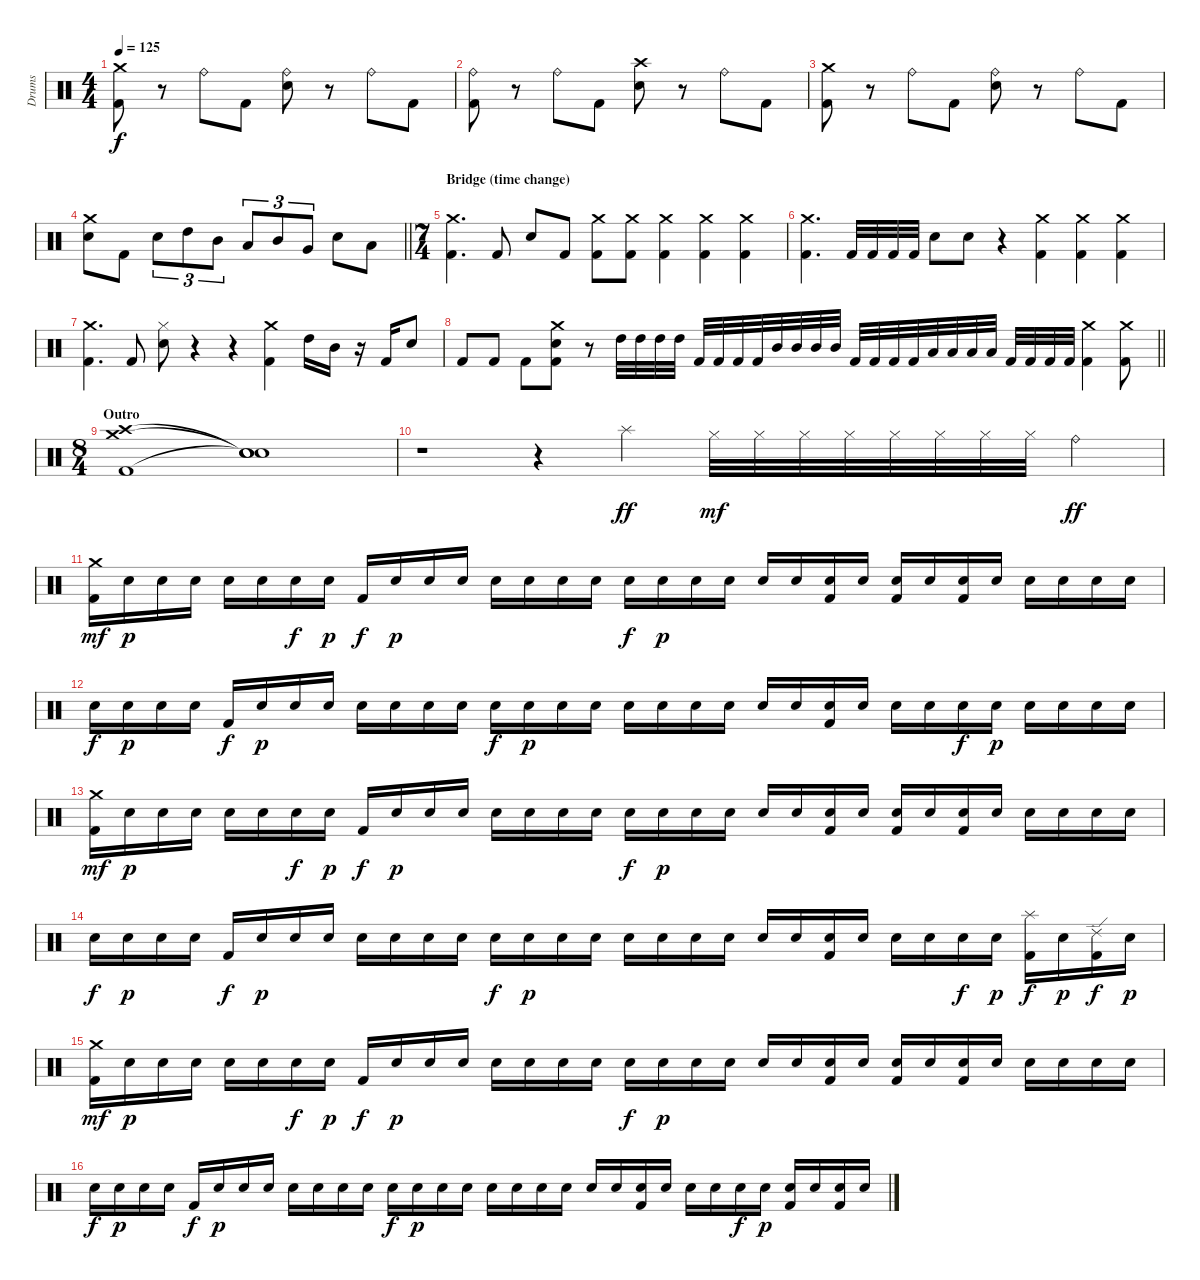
\track ("Drums " "Drums ") {instrument percussion}
\staff {score}
\articulation defaults
\ts (4 4)
\tempo 125
\clef neutral
\ks c
("Crash medium (hit)" "Kick (hit) 2").8{dy f} r.8 "Ride (bell)".8 "Kick (hit) 2".8 ("Ride (bell)" "Electric Snare (hit)").8 r.8 "Ride (bell)".8 "Kick (hit) 2".8 |
("Ride (bell)" "Kick (hit) 2").8 r.8 "Ride (bell)".8 "Kick (hit) 2".8 ("Crash high (hit)" "Electric Snare (hit)").8 r.8 "Ride (bell)".8 "Kick (hit) 2".8 |
("Crash medium (hit)" "Kick (hit) 2").8 r.8 "Ride (bell)".8 "Kick (hit) 2".8 ("Ride (bell)" "Electric Snare (hit)").8 r.8 "Ride (bell)".8 "Kick (hit) 2".8 |
\barLineRight lightlight
("Crash medium (hit)" "Electric Snare (hit)").8 "Kick (hit) 2".8 "Electric Snare (hit)".8{tu (3 2)} "High Tom (hit)".8{tu (3 2)} "Mid Tom (hit)".8{tu (3 2)} "Low Tom (hit)".8{tu (3 2)} "Mid Tom (hit)".8{tu (3 2)} "Very Low Tom (hit)".8{tu (3 2)} "Electric Snare (hit)".8 "Low Tom (hit)".8 |
\ts (7 4)
\section ("" "Bridge (time change) ")
("Crash medium (hit)" "Kick (hit) 2").4{d} "Kick (hit) 2".8 "Electric Snare (hit)".8 "Kick (hit) 2".8 ("Crash medium (hit)" "Kick (hit) 2").8 ("Crash medium (hit)" "Kick (hit) 2").8 ("Crash medium (hit)" "Kick (hit) 2").4 ("Crash medium (hit)" "Kick (hit) 2").4 ("Crash medium (hit)" "Kick (hit) 2").4 |
("Crash medium (hit)" "Kick (hit) 2").4{d} "Kick (hit) 2".32 "Kick (hit) 2".32 "Kick (hit) 2".32 "Kick (hit) 2".32 "Electric Snare (hit)".8 "Electric Snare (hit)".8 r.4 ("Crash medium (hit)" "Kick (hit) 2").4 ("Crash medium (hit)" "Kick (hit) 2").4 ("Crash medium (hit)" "Kick (hit) 2").4 |
("Crash medium (hit)" "Kick (hit) 2").4{d} "Kick (hit) 2".8 ("Hi-Hat (closed)" "Electric Snare (hit)").8 r.4 r.4 ("Crash medium (hit)" "Kick (hit) 2").4 "High Tom (hit)".16 "Mid Tom (hit)".16 r.16 "Kick (hit) 2".16 "Electric Snare (hit)".8 |
\barLineRight lightlight "Kick (hit) 2".8 "Kick (hit) 2".8 "Kick (hit) 2".8
("Crash medium (hit)" "Electric Snare (hit)" "Kick (hit) 2").8 r.8 "High Tom (hit)".32 "High Tom (hit)".32 "High Tom (hit)".32 "High Tom (hit)".32 "Kick (hit) 2".32 "Kick (hit) 2".32 "Kick (hit) 2".32 "Kick (hit) 2".32 "Mid Tom (hit)".32 "Mid Tom (hit)".32 "Mid Tom (hit)".32 "Mid Tom (hit)".32 "Kick (hit) 2".32 "Kick (hit) 2".32 "Kick (hit) 2".32 "Kick (hit) 2".32 "Low Tom (hit)".32 "Low Tom (hit)".32 "Low Tom (hit)".32 "Low Tom (hit)".32 "Kick (hit) 2".32 "Kick (hit) 2".32 "Kick (hit) 2".32 "Kick (hit) 2".32 ("Crash medium (hit)" "Kick (hit) 2").4 ("Crash medium (hit)" "Kick (hit) 2").8 |
\ts (8 4)
\section ("" "Outro")
("Crash medium (hit)" "Crash high (hit)" "Kick (hit) 2").1 ("Snare (hit)"{t} "Snare (hit)"{t} "Snare (hit)"{t}).1 |
r.1 r.4 "Splash (hit)".4{dy ff} "Hi-Hat (closed)".32{dy mf} "Hi-Hat (closed)".32 "Hi-Hat (closed)".32 "Hi-Hat (closed)".32 "Hi-Hat (closed)".32 "Hi-Hat (closed)".32 "Hi-Hat (closed)".32 "Hi-Hat (closed)".32 "Ride (bell)".4{dy ff} |
("Crash medium (hit)" "Kick (hit) 2").16{dy mf} "Electric Snare (hit)".16{dy p} "Electric Snare (hit)".16 "Electric Snare (hit)".16 "Electric Snare (hit)".16 "Electric Snare (hit)".16 "Electric Snare (hit)".16{dy f} "Electric Snare (hit)".16{dy p} "Kick (hit) 2".16{dy f} "Electric Snare (hit)".16{dy p} "Electric Snare (hit)".16 "Electric Snare (hit)".16 "Electric Snare (hit)".16 "Electric Snare (hit)".16 "Electric Snare (hit)".16 "Electric Snare (hit)".16 "Electric Snare (hit)".16{dy f} "Electric Snare (hit)".16{dy p} "Electric Snare (hit)".16 "Electric Snare (hit)".16 "Electric Snare (hit)".16 "Electric Snare (hit)".16 ("Electric Snare (hit)" "Kick (hit) 2").16 "Electric Snare (hit)".16 ("Electric Snare (hit)" "Kick (hit) 2").16 "Electric Snare (hit)".16 ("Electric Snare (hit)" "Kick (hit) 2").16 "Electric Snare (hit)".16 "Electric Snare (hit)".16 "Electric Snare (hit)".16 "Electric Snare (hit)".16 "Electric Snare (hit)".16 |
"Electric Snare (hit)".16{dy f} "Electric Snare (hit)".16{dy p} "Electric Snare (hit)".16 "Electric Snare (hit)".16 "Kick (hit) 2".16{dy f} "Electric Snare (hit)".16{dy p} "Electric Snare (hit)".16 "Electric Snare (hit)".16 "Electric Snare (hit)".16 "Electric Snare (hit)".16 "Electric Snare (hit)".16 "Electric Snare (hit)".16 "Electric Snare (hit)".16{dy f} "Electric Snare (hit)".16{dy p} "Electric Snare (hit)".16 "Electric Snare (hit)".16 "Electric Snare (hit)".16 "Electric Snare (hit)".16 "Electric Snare (hit)".16 "Electric Snare (hit)".16 "Electric Snare (hit)".16 "Electric Snare (hit)".16 ("Electric Snare (hit)" "Kick (hit) 2").16 "Electric Snare (hit)".16 "Electric Snare (hit)".16 "Electric Snare (hit)".16 "Electric Snare (hit)".16{dy f} "Electric Snare (hit)".16{dy p} "Electric Snare (hit)".16 "Electric Snare (hit)".16 "Electric Snare (hit)".16 "Electric Snare (hit)".16 |
("Crash medium (hit)" "Kick (hit) 2").16{dy mf} "Electric Snare (hit)".16{dy p} "Electric Snare (hit)".16 "Electric Snare (hit)".16 "Electric Snare (hit)".16 "Electric Snare (hit)".16 "Electric Snare (hit)".16{dy f} "Electric Snare (hit)".16{dy p} "Kick (hit) 2".16{dy f} "Electric Snare (hit)".16{dy p} "Electric Snare (hit)".16 "Electric Snare (hit)".16 "Electric Snare (hit)".16 "Electric Snare (hit)".16 "Electric Snare (hit)".16 "Electric Snare (hit)".16 "Electric Snare (hit)".16{dy f} "Electric Snare (hit)".16{dy p} "Electric Snare (hit)".16 "Electric Snare (hit)".16 "Electric Snare (hit)".16 "Electric Snare (hit)".16 ("Electric Snare (hit)" "Kick (hit) 2").16 "Electric Snare (hit)".16 ("Electric Snare (hit)" "Kick (hit) 2").16 "Electric Snare (hit)".16 ("Electric Snare (hit)" "Kick (hit) 2").16 "Electric Snare (hit)".16 "Electric Snare (hit)".16 "Electric Snare (hit)".16 "Electric Snare (hit)".16 "Electric Snare (hit)".16 |
"Electric Snare (hit)".16{dy f} "Electric Snare (hit)".16{dy p} "Electric Snare (hit)".16 "Electric Snare (hit)".16 "Kick (hit) 2".16{dy f} "Electric Snare (hit)".16{dy p} "Electric Snare (hit)".16 "Electric Snare (hit)".16 "Electric Snare (hit)".16 "Electric Snare (hit)".16 "Electric Snare (hit)".16 "Electric Snare (hit)".16 "Electric Snare (hit)".16{dy f} "Electric Snare (hit)".16{dy p} "Electric Snare (hit)".16 "Electric Snare (hit)".16 "Electric Snare (hit)".16 "Electric Snare (hit)".16 "Electric Snare (hit)".16 "Electric Snare (hit)".16 "Electric Snare (hit)".16 "Electric Snare (hit)".16 ("Electric Snare (hit)" "Kick (hit) 2").16 "Electric Snare (hit)".16 "Electric Snare (hit)".16 "Electric Snare (hit)".16 "Electric Snare (hit)".16{dy f} "Electric Snare (hit)".16{dy p} ("Splash (hit)" "Kick (hit) 2").16{dy f} "Electric Snare (hit)".16{dy p} ("Ride (edge) 2" "Kick (hit) 2").16{dy f} "Electric Snare (hit)".16{dy p} |
("Crash medium (hit)" "Kick (hit) 2").16{dy mf} "Electric Snare (hit)".16{dy p} "Electric Snare (hit)".16 "Electric Snare (hit)".16 "Electric Snare (hit)".16 "Electric Snare (hit)".16 "Electric Snare (hit)".16{dy f} "Electric Snare (hit)".16{dy p} "Kick (hit) 2".16{dy f} "Electric Snare (hit)".16{dy p} "Electric Snare (hit)".16 "Electric Snare (hit)".16 "Electric Snare (hit)".16 "Electric Snare (hit)".16 "Electric Snare (hit)".16 "Electric Snare (hit)".16 "Electric Snare (hit)".16{dy f} "Electric Snare (hit)".16{dy p} "Electric Snare (hit)".16 "Electric Snare (hit)".16 "Electric Snare (hit)".16 "Electric Snare (hit)".16 ("Electric Snare (hit)" "Kick (hit) 2").16 "Electric Snare (hit)".16 ("Electric Snare (hit)" "Kick (hit) 2").16 "Electric Snare (hit)".16 ("Electric Snare (hit)" "Kick (hit) 2").16 "Electric Snare (hit)".16 "Electric Snare (hit)".16 "Electric Snare (hit)".16 "Electric Snare (hit)".16 "Electric Snare (hit)".16 |
"Electric Snare (hit)".16{dy f} "Electric Snare (hit)".16{dy p} "Electric Snare (hit)".16 "Electric Snare (hit)".16 "Kick (hit) 2".16{dy f} "Electric Snare (hit)".16{dy p} "Electric Snare (hit)".16 "Electric Snare (hit)".16 "Electric Snare (hit)".16 "Electric Snare (hit)".16 "Electric Snare (hit)".16 "Electric Snare (hit)".16 "Electric Snare (hit)".16{dy f} "Electric Snare (hit)".16{dy p} "Electric Snare (hit)".16 "Electric Snare (hit)".16 "Electric Snare (hit)".16 "Electric Snare (hit)".16 "Electric Snare (hit)".16 "Electric Snare (hit)".16 "Electric Snare (hit)".16 "Electric Snare (hit)".16 ("Electric Snare (hit)" "Kick (hit) 2").16 "Electric Snare (hit)".16 "Electric Snare (hit)".16 "Electric Snare (hit)".16 "Electric Snare (hit)".16{dy f} "Electric Snare (hit)".16{dy p} ("Electric Snare (hit)" "Kick (hit) 2").16 "Electric Snare (hit)".16 ("Electric Snare (hit)" "Kick (hit) 2").16 "Electric Snare (hit)".16
